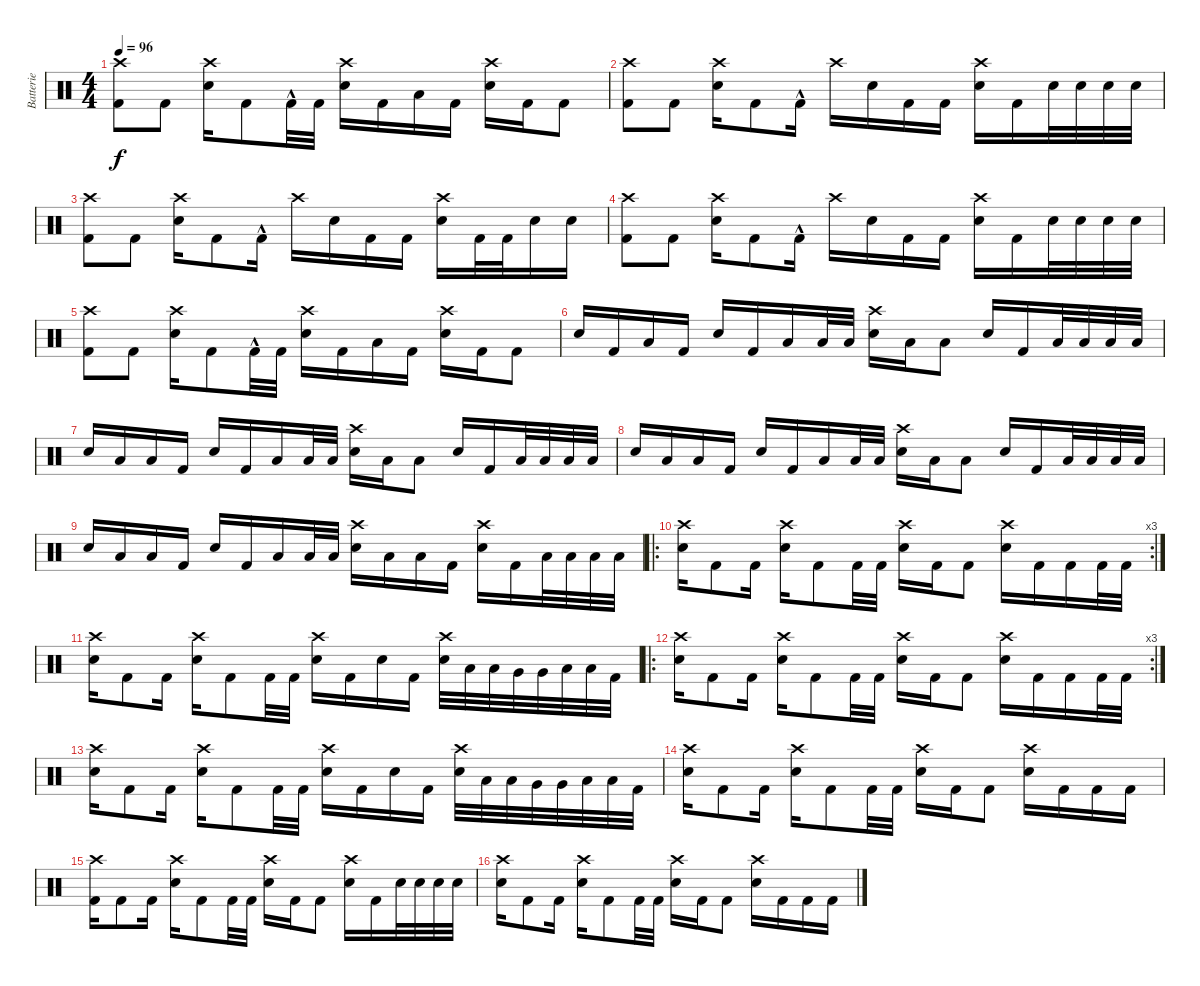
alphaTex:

\track ("Batterie" "Batterie") {instrument percussion}
\staff {score}
\articulation defaults
\ts (4 4)
\tempo 96
\clef neutral
\ks c
("Crash high (hit)" "Kick (hit) 2").8{dy f} "Kick (hit) 2".8 ("Crash high (hit)" "Snare (hit) 2").16 "Kick (hit) 2".8 "Kick (hit) 2"{hac}.32 "Kick (hit) 2".32 ("Crash high (hit)" "Snare (hit) 2").16 "Kick (hit) 2".16 "Low Floor Tom (hit)".16 "Kick (hit) 2".16 ("Crash high (hit)" "Snare (hit) 2").16 "Kick (hit) 2".16 "Kick (hit) 2".8 |
("Crash high (hit)" "Kick (hit) 2").8 "Kick (hit) 2".8 ("Crash high (hit)" "Snare (hit) 2").16 "Kick (hit) 2".8 "Kick (hit) 2"{hac}.16 "Crash high (hit)".16 "Snare (hit) 2".16 "Kick (hit) 2".16 "Kick (hit) 2".16 ("Crash high (hit)" "Snare (hit) 2").16 "Kick (hit) 2".16 "Snare (hit) 2".32 "Snare (hit) 2".32 "Snare (hit) 2".32 "Snare (hit) 2".32 |
("Crash high (hit)" "Kick (hit) 2").8 "Kick (hit) 2".8 ("Crash high (hit)" "Snare (hit) 2").16 "Kick (hit) 2".8 "Kick (hit) 2"{hac}.16 "Crash high (hit)".16 "Snare (hit) 2".16 "Kick (hit) 2".16 "Kick (hit) 2".16 ("Crash high (hit)" "Snare (hit) 2").16 "Kick (hit) 2".32 "Kick (hit) 2".32 "Snare (hit) 2".16 "Snare (hit) 2".16 |
("Crash high (hit)" "Kick (hit) 2").8 "Kick (hit) 2".8 ("Crash high (hit)" "Snare (hit) 2").16 "Kick (hit) 2".8 "Kick (hit) 2"{hac}.16 "Crash high (hit)".16 "Snare (hit) 2".16 "Kick (hit) 2".16 "Kick (hit) 2".16 ("Crash high (hit)" "Snare (hit) 2").16 "Kick (hit) 2".16 "Snare (hit) 2".32 "Snare (hit) 2".32 "Snare (hit) 2".32 "Snare (hit) 2".32 |
("Crash high (hit)" "Kick (hit) 2").8 "Kick (hit) 2".8 ("Crash high (hit)" "Snare (hit) 2").16 "Kick (hit) 2".8 "Kick (hit) 2"{hac}.32 "Kick (hit) 2".32 ("Crash high (hit)" "Snare (hit) 2").16 "Kick (hit) 2".16 "Low Floor Tom (hit)".16 "Kick (hit) 2".16 ("Crash high (hit)" "Snare (hit) 2").16 "Kick (hit) 2".16 "Kick (hit) 2".8 |
"Snare (hit) 2".16 "Kick (hit) 2".16 "Low Floor Tom (hit)".16 "Kick (hit) 2".16 "Snare (hit) 2".16 "Kick (hit) 2".16 "Low Floor Tom (hit)".16 "Low Floor Tom (hit)".32 "Low Floor Tom (hit)".32 ("Crash high (hit)" "Snare (hit) 2").16 "Low Floor Tom (hit)".16 "Low Floor Tom (hit)".8 "Snare (hit) 2".16 "Kick (hit) 2".16 "Low Floor Tom (hit)".32 "Low Floor Tom (hit)".32 "Low Floor Tom (hit)".32 "Low Floor Tom (hit)".32 |
"Snare (hit) 2".16 "Low Floor Tom (hit)".16 "Low Floor Tom (hit)".16 "Kick (hit) 2".16 "Snare (hit) 2".16 "Kick (hit) 2".16 "Low Floor Tom (hit)".16 "Low Floor Tom (hit)".32 "Low Floor Tom (hit)".32 ("Crash high (hit)" "Snare (hit) 2").16 "Low Floor Tom (hit)".16 "Low Floor Tom (hit)".8 "Snare (hit) 2".16 "Kick (hit) 2".16 "Low Floor Tom (hit)".32 "Low Floor Tom (hit)".32 "Low Floor Tom (hit)".32 "Low Floor Tom (hit)".32 |
"Snare (hit) 2".16 "Low Floor Tom (hit)".16 "Low Floor Tom (hit)".16 "Kick (hit) 2".16 "Snare (hit) 2".16 "Kick (hit) 2".16 "Low Floor Tom (hit)".16 "Low Floor Tom (hit)".32 "Low Floor Tom (hit)".32 ("Crash high (hit)" "Snare (hit) 2").16 "Low Floor Tom (hit)".16 "Low Floor Tom (hit)".8 "Snare (hit) 2".16 "Kick (hit) 2".16 "Low Floor Tom (hit)".32 "Low Floor Tom (hit)".32 "Low Floor Tom (hit)".32 "Low Floor Tom (hit)".32 |
"Snare (hit) 2".16 "Low Floor Tom (hit)".16 "Low Floor Tom (hit)".16 "Kick (hit) 2".16 "Snare (hit) 2".16 "Kick (hit) 2".16 "Low Floor Tom (hit)".16 "Low Floor Tom (hit)".32 "Low Floor Tom (hit)".32 ("Crash high (hit)" "Snare (hit) 2").16 "Low Floor Tom (hit)".16 "Low Floor Tom (hit)".16 "Kick (hit) 2".16 ("Crash high (hit)" "Snare (hit) 2").16 "Kick (hit) 2".16 "Low Floor Tom (hit)".32 "Low Floor Tom (hit)".32 "Low Floor Tom (hit)".32 "Low Floor Tom (hit)".32 |
\ro
\rc 3
("Crash high (hit)" "Snare (hit) 2").16 "Kick (hit) 2".8 "Kick (hit) 2".16 ("Crash high (hit)" "Snare (hit) 2").16 "Kick (hit) 2".8 "Kick (hit) 2".32 "Kick (hit) 2".32 ("Crash high (hit)" "Snare (hit) 2").16 "Kick (hit) 2".16 "Kick (hit) 2".8 ("Crash high (hit)" "Snare (hit) 2").16 "Kick (hit) 2".16 "Kick (hit) 2".16 "Kick (hit) 2".32 "Kick (hit) 2".32 |
("Crash high (hit)" "Snare (hit) 2").16 "Kick (hit) 2".8 "Kick (hit) 2".16 ("Crash high (hit)" "Snare (hit) 2").16 "Kick (hit) 2".8 "Kick (hit) 2".32 "Kick (hit) 2".32 ("Crash high (hit)" "Snare (hit) 2").16 "Kick (hit) 2".16 "Snare (hit) 2".16 "Kick (hit) 2".16 ("Crash high (hit)" "Snare (hit) 2").32 "Low Tom (hit)".32 "Low Tom (hit)".32 "Very Low Tom (hit)".32 "Very Low Tom (hit)".32 "Low Floor Tom (hit)".32 "Low Floor Tom (hit)".32 "Kick (hit) 2".32 |
\ro
\rc 3
("Crash high (hit)" "Snare (hit) 2").16 "Kick (hit) 2".8 "Kick (hit) 2".16 ("Crash high (hit)" "Snare (hit) 2").16 "Kick (hit) 2".8 "Kick (hit) 2".32 "Kick (hit) 2".32 ("Crash high (hit)" "Snare (hit) 2").16 "Kick (hit) 2".16 "Kick (hit) 2".8 ("Crash high (hit)" "Snare (hit) 2").16 "Kick (hit) 2".16 "Kick (hit) 2".16 "Kick (hit) 2".32 "Kick (hit) 2".32 |
("Crash high (hit)" "Snare (hit) 2").16 "Kick (hit) 2".8 "Kick (hit) 2".16 ("Crash high (hit)" "Snare (hit) 2").16 "Kick (hit) 2".8 "Kick (hit) 2".32 "Kick (hit) 2".32 ("Crash high (hit)" "Snare (hit) 2").16 "Kick (hit) 2".16 "Snare (hit) 2".16 "Kick (hit) 2".16 ("Crash high (hit)" "Snare (hit) 2").32 "Low Tom (hit)".32 "Low Tom (hit)".32 "Very Low Tom (hit)".32 "Very Low Tom (hit)".32 "Low Floor Tom (hit)".32 "Low Floor Tom (hit)".32 "Kick (hit) 2".32 |
("Crash high (hit)" "Snare (hit) 2").16 "Kick (hit) 2".8 "Kick (hit) 2".16 ("Crash high (hit)" "Snare (hit) 2").16 "Kick (hit) 2".8 "Kick (hit) 2".32 "Kick (hit) 2".32 ("Crash high (hit)" "Snare (hit) 2").16 "Kick (hit) 2".16 "Kick (hit) 2".8 ("Crash high (hit)" "Snare (hit) 2").16 "Kick (hit) 2".16 "Kick (hit) 2".16 "Kick (hit) 2".16 |
("Crash high (hit)" "Kick (hit) 2").16 "Kick (hit) 2".8 "Kick (hit) 2".16 ("Crash high (hit)" "Snare (hit) 2").16 "Kick (hit) 2".8 "Kick (hit) 2".32 "Kick (hit) 2".32 ("Crash high (hit)" "Snare (hit) 2").16 "Kick (hit) 2".16 "Kick (hit) 2".8 ("Crash high (hit)" "Snare (hit) 2").16 "Kick (hit) 2".16 "Snare (hit) 2".32 "Snare (hit) 2".32 "Snare (hit) 2".32 "Snare (hit) 2".32 |
("Crash high (hit)" "Snare (hit) 2").16 "Kick (hit) 2".8 "Kick (hit) 2".16 ("Crash high (hit)" "Snare (hit) 2").16 "Kick (hit) 2".8 "Kick (hit) 2".32 "Kick (hit) 2".32 ("Crash high (hit)" "Snare (hit) 2").16 "Kick (hit) 2".16 "Kick (hit) 2".8 ("Crash high (hit)" "Snare (hit) 2").16 "Kick (hit) 2".16 "Kick (hit) 2".16 "Kick (hit) 2".16
